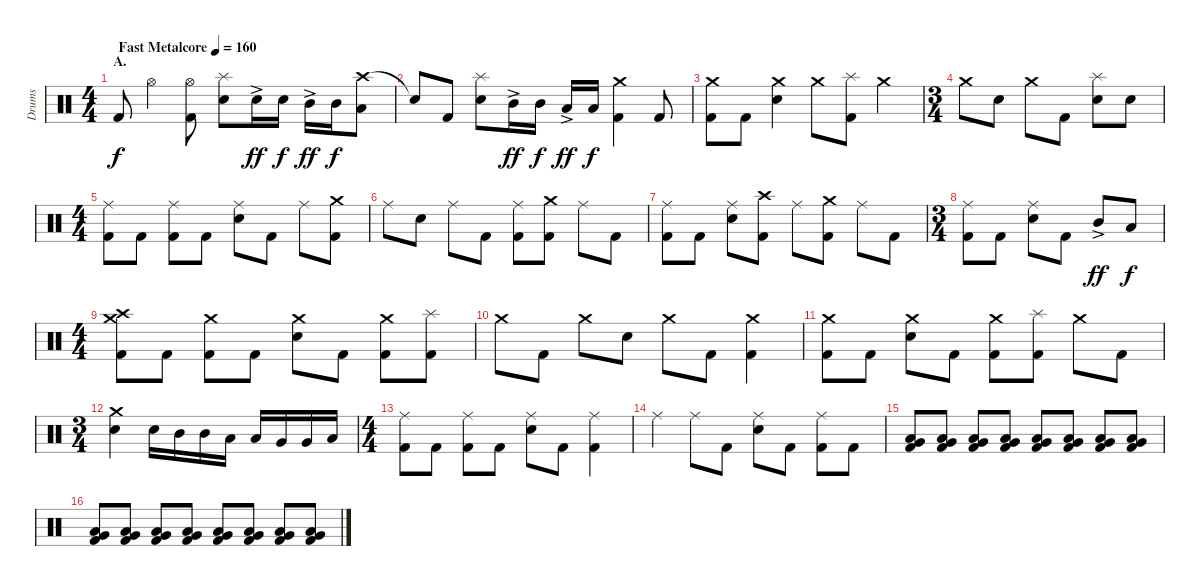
\track ("Drums" "Drums") {instrument percussion}
\staff {score}
\articulation defaults
\ts (4 4)
\section ("" "A.")
\tempo (160 "Fast Metalcore")
\clef neutral
\ks c "Kick (hit) 2".8{dy f} "Hi-Hat (open)".4
("Hi-Hat (open)" "Kick (hit) 2").8 ("Splash (hit)" "Electric Snare (hit)").8 "Electric Snare (hit)"{ac}.16{dy ff} "Electric Snare (hit)".16{dy f} "Mid Tom (hit)"{ac}.16{dy ff} "Mid Tom (hit)".16{dy f} ("Crash high (hit)" "Low Tom (hit)").8 |
"Snare (hit)"{t}.8 "Kick (hit) 2".8 ("Splash (hit)" "Electric Snare (hit)").8 "Mid Tom (hit)"{ac}.16{dy ff} "Mid Tom (hit)".16{dy f} "Low Tom (hit)"{ac}.16{dy ff} "Low Tom (hit)".16{dy f} ("Crash medium (hit)" "Kick (hit) 2").4 "Kick (hit) 2".8 |
("Crash medium (hit)" "Kick (hit) 2").8 "Kick (hit) 2".8 ("Crash medium (hit)" "Electric Snare (hit)").4 "Crash medium (hit)".8 ("Splash (hit)" "Kick (hit) 2").8 "Crash medium (hit)".4 |
\ts (3 4)
"Crash medium (hit)".8 "Electric Snare (hit)".8 "Crash medium (hit)".8 "Kick (hit) 2".8 ("Splash (hit)" "Electric Snare (hit)").8 "Electric Snare (hit)".8 |
\ts (4 4)
("Ride (middle)" "Kick (hit) 2").8 "Kick (hit) 2".8 ("Ride (middle)" "Kick (hit) 2").8 "Kick (hit) 2".8 ("Ride (middle)" "Electric Snare (hit)").8 "Kick (hit) 2".8 "Ride (middle)".8 ("Crash medium (hit)" "Kick (hit) 2").8 |
"Ride (middle)".8 "Electric Snare (hit)".8 "Ride (middle)".8 "Kick (hit) 2".8 ("Ride (middle)" "Kick (hit) 2").8 ("Crash medium (hit)" "Kick (hit) 2").8 "Ride (middle)".8 "Kick (hit) 2".8 |
("Ride (middle)" "Kick (hit) 2").8 "Kick (hit) 2".8 ("Ride (middle)" "Electric Snare (hit)").8 ("Crash high (hit)" "Kick (hit) 2").8 "Ride (middle)".8 ("Crash medium (hit)" "Kick (hit) 2").8 "Ride (middle)".8 "Kick (hit) 2".8 |
\ts (3 4)
("Ride (middle)" "Kick (hit) 2").8 "Kick (hit) 2".8 ("Ride (middle)" "Electric Snare (hit)").8 "Kick (hit) 2".8 "Mid Tom (hit)"{ac}.8{dy ff} "Low Tom (hit)".8{dy f} |
\ts (4 4)
("Crash medium (hit)" "Crash high (hit)" "Kick (hit) 2").8 "Kick (hit) 2".8 ("Crash medium (hit)" "Kick (hit) 2").8 "Kick (hit) 2".8 ("Crash medium (hit)" "Electric Snare (hit)").8 "Kick (hit) 2".8 ("Crash medium (hit)" "Kick (hit) 2").8 ("Splash (hit)" "Kick (hit) 2").8 |
"Crash medium (hit)".8 "Kick (hit) 2".8 "Crash medium (hit)".8 "Electric Snare (hit)".8 "Crash medium (hit)".8 "Kick (hit) 2".8 ("Crash medium (hit)" "Kick (hit) 2").4 |
("Crash medium (hit)" "Kick (hit) 2").8 "Kick (hit) 2".8 ("Crash medium (hit)" "Electric Snare (hit)").8 "Kick (hit) 2".8 ("Crash medium (hit)" "Kick (hit) 2").8 ("Splash (hit)" "Kick (hit) 2").8 "Crash medium (hit)".8 "Kick (hit) 2".8 |
\ts (3 4)
("Crash medium (hit)" "Electric Snare (hit)").4 "Electric Snare (hit)".16 "Mid Tom (hit)".16 "Mid Tom (hit)".16 "Low Tom (hit)".16 "Low Tom (hit)".16 "Very Low Tom (hit)".16 "Very Low Tom (hit)".16 "Low Floor Tom (hit)".16 |
\ts (4 4)
("Ride (middle)" "Kick (hit) 2").8 "Kick (hit) 2".8 ("Ride (middle)" "Kick (hit) 2").8 "Kick (hit) 2".8 ("Ride (middle)" "Electric Snare (hit)").8 "Kick (hit) 2".8 ("Ride (middle)" "Kick (hit) 2").4 |
"Ride (middle)".4 "Ride (middle)".8 "Kick (hit) 2".8 ("Ride (middle)" "Electric Snare (hit)").8 "Kick (hit) 2".8 ("Ride (middle)" "Kick (hit) 2").8 "Kick (hit) 2".8 |
("Very Low Tom (hit)" "Low Floor Tom (hit)" "Kick (hit) 2").8{volume 6} ("Very Low Tom (hit)" "Low Floor Tom (hit)" "Kick (hit) 2").8 ("Very Low Tom (hit)" "Low Floor Tom (hit)" "Kick (hit) 2").8{volume 14} ("Very Low Tom (hit)" "Low Floor Tom (hit)" "Kick (hit) 2").8 ("Very Low Tom (hit)" "Low Floor Tom (hit)" "Kick (hit) 2").8 ("Very Low Tom (hit)" "Low Floor Tom (hit)" "Kick (hit) 2").8 ("Very Low Tom (hit)" "Low Floor Tom (hit)" "Kick (hit) 2").8 ("Very Low Tom (hit)" "Low Floor Tom (hit)" "Kick (hit) 2").8 |
("Very Low Tom (hit)" "Low Floor Tom (hit)" "Kick (hit) 2").8 ("Very Low Tom (hit)" "Low Floor Tom (hit)" "Kick (hit) 2").8 ("Very Low Tom (hit)" "Low Floor Tom (hit)" "Kick (hit) 2").8 ("Very Low Tom (hit)" "Low Floor Tom (hit)" "Kick (hit) 2").8 ("Very Low Tom (hit)" "Low Floor Tom (hit)" "Kick (hit) 2").8 ("Very Low Tom (hit)" "Low Floor Tom (hit)" "Kick (hit) 2").8 ("Very Low Tom (hit)" "Low Floor Tom (hit)" "Kick (hit) 2").8 ("Very Low Tom (hit)" "Low Floor Tom (hit)" "Kick (hit) 2").8
